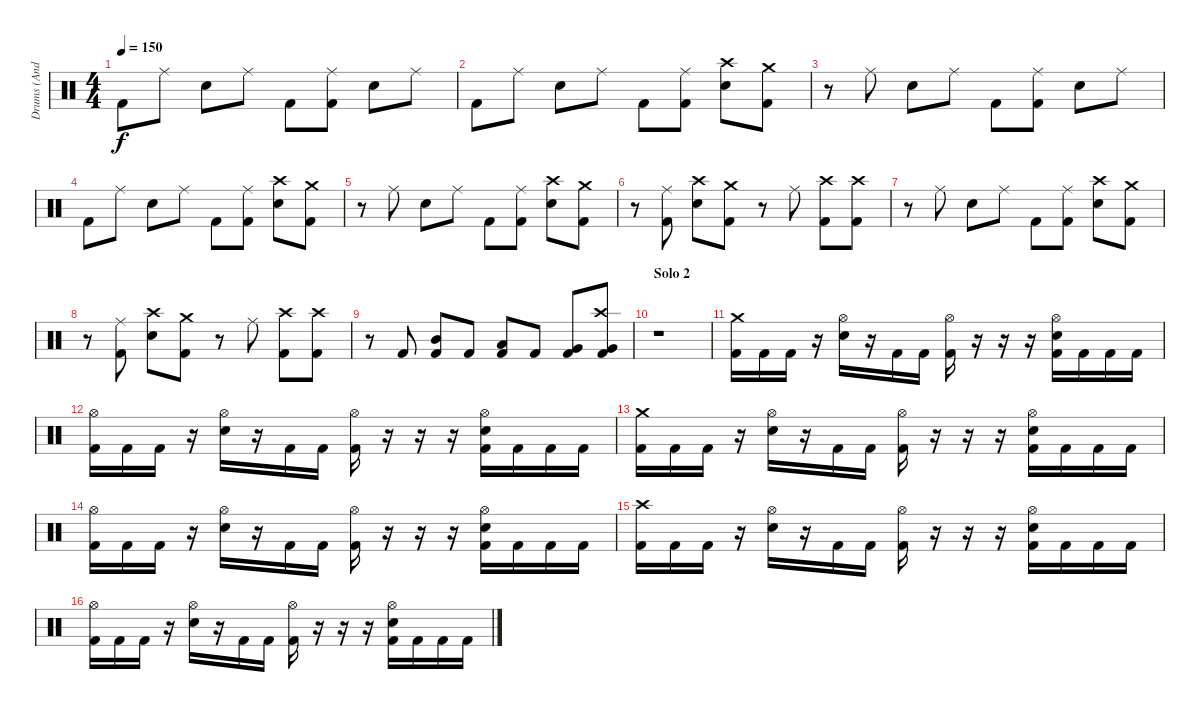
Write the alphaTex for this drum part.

\track ("Drums (Andy C)" "Drums (And") {instrument percussion}
\staff {score}
\articulation defaults
\ts (4 4)
\tempo 150
\clef neutral
\ks c "Kick (hit) 2".8{dy f} "Ride (middle)".8 "Electric Snare (hit)".8 "Ride (middle)".8 "Kick (hit) 2".8
("Ride (middle)" "Kick (hit) 2").8 "Electric Snare (hit)".8 "Ride (middle)".8 |
"Kick (hit) 2".8 "Ride (middle)".8 "Electric Snare (hit)".8 "Ride (middle)".8 "Kick (hit) 2".8 ("Ride (middle)" "Kick (hit) 2").8 ("Crash high (hit)" "Electric Snare (hit)").8 ("Crash medium (hit)" "Kick (hit) 2").8 |
r.8 "Ride (middle)".8 "Electric Snare (hit)".8 "Ride (middle)".8 "Kick (hit) 2".8 ("Ride (middle)" "Kick (hit) 2").8 "Electric Snare (hit)".8 "Ride (middle)".8 |
"Kick (hit) 2".8 "Ride (middle)".8 "Electric Snare (hit)".8 "Ride (middle)".8 "Kick (hit) 2".8 ("Ride (middle)" "Kick (hit) 2").8 ("Crash high (hit)" "Electric Snare (hit)").8 ("Crash medium (hit)" "Kick (hit) 2").8 |
r.8 "Ride (middle)".8 "Electric Snare (hit)".8 "Ride (middle)".8 "Kick (hit) 2".8 ("Ride (middle)" "Kick (hit) 2").8 ("Crash high (hit)" "Electric Snare (hit)").8 ("Crash medium (hit)" "Kick (hit) 2").8 |
r.8 ("Ride (middle)" "Kick (hit) 2").8 ("Crash high (hit)" "Electric Snare (hit)").8 ("Crash medium (hit)" "Kick (hit) 2").8 r.8 "Ride (middle)".8 ("Crash high (hit)" "Kick (hit) 2").8 ("Crash high (hit)" "Kick (hit) 2").8 |
r.8 "Ride (middle)".8 "Electric Snare (hit)".8 "Ride (middle)".8 "Kick (hit) 2".8 ("Ride (middle)" "Kick (hit) 2").8 ("Crash high (hit)" "Electric Snare (hit)").8 ("Crash medium (hit)" "Kick (hit) 2").8 |
r.8 ("Ride (middle)" "Kick (hit) 2").8 ("Crash high (hit)" "Electric Snare (hit)").8 ("Crash medium (hit)" "Kick (hit) 2").8 r.8 "Ride (middle)".8 ("Crash high (hit)" "Kick (hit) 2").8 ("Crash high (hit)" "Kick (hit) 2").8 |
r.8 "Kick (hit) 2".8 ("Mid Tom (hit)" "Kick (hit) 2").8 "Kick (hit) 2".8 ("Low Tom (hit)" "Kick (hit) 2").8 "Kick (hit) 2".8 ("Very Low Tom (hit)" "Kick (hit) 2").8 ("Crash high (hit)" "Very Low Tom (hit)" "Kick (hit) 2").8 |
\section ("" "Solo 2")
r.1 |
("Crash medium (hit)" "Kick (hit) 2").16 "Kick (hit) 2".16 "Kick (hit) 2".16 r.16 ("Hi-Hat (open)" "Electric Snare (hit)").16 r.16 "Kick (hit) 2".16 "Kick (hit) 2".16 ("Hi-Hat (open)" "Kick (hit) 2").16 r.16 r.16 r.16 ("Hi-Hat (open)" "Kick (hit) 2" "Electric Snare (hit)").16 "Kick (hit) 2".16 "Kick (hit) 2".16 "Kick (hit) 2".16 |
("Hi-Hat (open)" "Kick (hit) 2").16 "Kick (hit) 2".16 "Kick (hit) 2".16 r.16 ("Hi-Hat (open)" "Electric Snare (hit)").16 r.16 "Kick (hit) 2".16 "Kick (hit) 2".16 ("Hi-Hat (open)" "Kick (hit) 2").16 r.16 r.16 r.16 ("Hi-Hat (open)" "Kick (hit) 2" "Electric Snare (hit)").16 "Kick (hit) 2".16 "Kick (hit) 2".16 "Kick (hit) 2".16 |
("Crash medium (hit)" "Kick (hit) 2").16 "Kick (hit) 2".16 "Kick (hit) 2".16 r.16 ("Hi-Hat (open)" "Electric Snare (hit)").16 r.16 "Kick (hit) 2".16 "Kick (hit) 2".16 ("Hi-Hat (open)" "Kick (hit) 2").16 r.16 r.16 r.16 ("Hi-Hat (open)" "Kick (hit) 2" "Electric Snare (hit)").16 "Kick (hit) 2".16 "Kick (hit) 2".16 "Kick (hit) 2".16 |
("Hi-Hat (open)" "Kick (hit) 2").16 "Kick (hit) 2".16 "Kick (hit) 2".16 r.16 ("Hi-Hat (open)" "Electric Snare (hit)").16 r.16 "Kick (hit) 2".16 "Kick (hit) 2".16 ("Hi-Hat (open)" "Kick (hit) 2").16 r.16 r.16 r.16 ("Hi-Hat (open)" "Electric Snare (hit)" "Kick (hit) 2").16 "Kick (hit) 2".16 "Kick (hit) 2".16 "Kick (hit) 2".16 |
("Crash high (hit)" "Kick (hit) 2").16 "Kick (hit) 2".16 "Kick (hit) 2".16 r.16 ("Hi-Hat (open)" "Electric Snare (hit)").16 r.16 "Kick (hit) 2".16 "Kick (hit) 2".16 ("Hi-Hat (open)" "Kick (hit) 2").16 r.16 r.16 r.16 ("Hi-Hat (open)" "Kick (hit) 2" "Electric Snare (hit)").16 "Kick (hit) 2".16 "Kick (hit) 2".16 "Kick (hit) 2".16 |
("Hi-Hat (open)" "Kick (hit) 2").16 "Kick (hit) 2".16 "Kick (hit) 2".16 r.16 ("Hi-Hat (open)" "Electric Snare (hit)").16 r.16 "Kick (hit) 2".16 "Kick (hit) 2".16 ("Hi-Hat (open)" "Kick (hit) 2").16 r.16 r.16 r.16 ("Hi-Hat (open)" "Kick (hit) 2" "Electric Snare (hit)").16 "Kick (hit) 2".16 "Kick (hit) 2".16 "Kick (hit) 2".16
